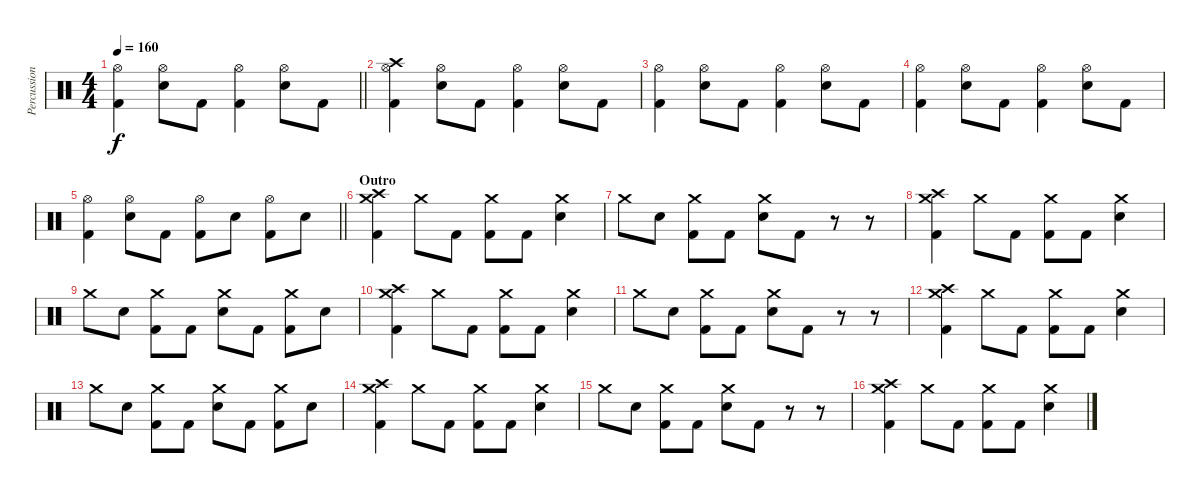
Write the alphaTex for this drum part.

\track ("Percussion" "Percussion") {instrument percussion}
\staff {score}
\articulation defaults
\ts (4 4)
\tempo 160
\clef neutral
\barLineRight lightlight
\ks c
("Hi-Hat (open)" "Kick (hit) 2").4{dy f} ("Hi-Hat (open)" "Snare (hit) 2").8 "Kick (hit) 2".8 ("Hi-Hat (open)" "Kick (hit) 2").4 ("Hi-Hat (open)" "Snare (hit) 2").8 "Kick (hit) 2".8 |
("Crash high (hit)" "Hi-Hat (open)" "Kick (hit) 2").4 ("Hi-Hat (open)" "Snare (hit) 2").8 "Kick (hit) 2".8 ("Hi-Hat (open)" "Kick (hit) 2").4 ("Hi-Hat (open)" "Snare (hit) 2").8 "Kick (hit) 2".8 |
("Hi-Hat (open)" "Kick (hit) 2").4 ("Hi-Hat (open)" "Snare (hit) 2").8 "Kick (hit) 2".8 ("Hi-Hat (open)" "Kick (hit) 2").4 ("Hi-Hat (open)" "Snare (hit) 2").8 "Kick (hit) 2".8 |
("Hi-Hat (open)" "Kick (hit) 2").4 ("Hi-Hat (open)" "Snare (hit) 2").8 "Kick (hit) 2".8 ("Hi-Hat (open)" "Kick (hit) 2").4 ("Hi-Hat (open)" "Snare (hit) 2").8 "Kick (hit) 2".8 |
\barLineRight lightlight
("Hi-Hat (open)" "Kick (hit) 2").4 ("Hi-Hat (open)" "Snare (hit) 2").8 "Kick (hit) 2".8 ("Hi-Hat (open)" "Kick (hit) 2").8 "Snare (hit) 2".8 ("Hi-Hat (open)" "Kick (hit) 2").8 "Snare (hit) 2".8 |
\section ("" "Outro")
("Crash high (hit)" "Crash medium (hit)" "Kick (hit) 2").4 "Crash medium (hit)".8 "Kick (hit) 2".8 ("Crash medium (hit)" "Kick (hit) 2").8 "Kick (hit) 2".8 ("Crash medium (hit)" "Snare (hit) 2").4 |
"Crash medium (hit)".8 "Snare (hit) 2".8 ("Crash medium (hit)" "Kick (hit) 2").8 "Kick (hit) 2".8 ("Crash medium (hit)" "Snare (hit) 2").8 "Kick (hit) 2".8 r.8 r.8 |
("Crash high (hit)" "Crash medium (hit)" "Kick (hit) 2").4 "Crash medium (hit)".8 "Kick (hit) 2".8 ("Crash medium (hit)" "Kick (hit) 2").8 "Kick (hit) 2".8 ("Crash medium (hit)" "Snare (hit) 2").4 |
"Crash medium (hit)".8 "Snare (hit) 2".8 ("Crash medium (hit)" "Kick (hit) 2").8 "Kick (hit) 2".8 ("Crash medium (hit)" "Snare (hit) 2").8 "Kick (hit) 2".8 ("Crash medium (hit)" "Kick (hit) 2").8 "Snare (hit) 2".8 |
("Crash high (hit)" "Crash medium (hit)" "Kick (hit) 2").4 "Crash medium (hit)".8 "Kick (hit) 2".8 ("Crash medium (hit)" "Kick (hit) 2").8 "Kick (hit) 2".8 ("Crash medium (hit)" "Snare (hit) 2").4 |
"Crash medium (hit)".8 "Snare (hit) 2".8 ("Crash medium (hit)" "Kick (hit) 2").8 "Kick (hit) 2".8 ("Crash medium (hit)" "Snare (hit) 2").8 "Kick (hit) 2".8 r.8 r.8 |
("Crash high (hit)" "Crash medium (hit)" "Kick (hit) 2").4 "Crash medium (hit)".8 "Kick (hit) 2".8 ("Crash medium (hit)" "Kick (hit) 2").8 "Kick (hit) 2".8 ("Crash medium (hit)" "Snare (hit) 2").4 |
"Crash medium (hit)".8 "Snare (hit) 2".8 ("Crash medium (hit)" "Kick (hit) 2").8 "Kick (hit) 2".8 ("Crash medium (hit)" "Snare (hit) 2").8 "Kick (hit) 2".8 ("Crash medium (hit)" "Kick (hit) 2").8 "Snare (hit) 2".8 |
("Crash high (hit)" "Crash medium (hit)" "Kick (hit) 2").4 "Crash medium (hit)".8 "Kick (hit) 2".8 ("Crash medium (hit)" "Kick (hit) 2").8 "Kick (hit) 2".8 ("Crash medium (hit)" "Snare (hit) 2").4 |
"Crash medium (hit)".8 "Snare (hit) 2".8 ("Crash medium (hit)" "Kick (hit) 2").8 "Kick (hit) 2".8 ("Crash medium (hit)" "Snare (hit) 2").8 "Kick (hit) 2".8 r.8 r.8 |
("Crash high (hit)" "Crash medium (hit)" "Kick (hit) 2").4 "Crash medium (hit)".8 "Kick (hit) 2".8 ("Crash medium (hit)" "Kick (hit) 2").8 "Kick (hit) 2".8 ("Crash medium (hit)" "Snare (hit) 2").4
